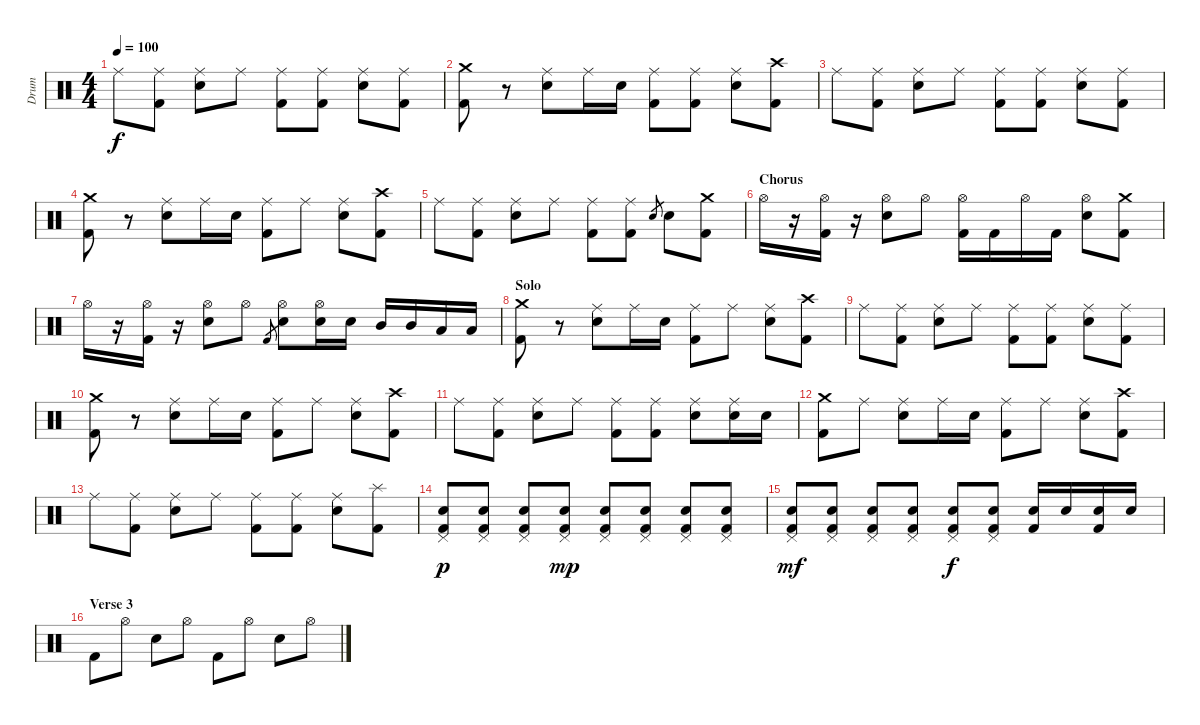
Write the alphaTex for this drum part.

\track ("Drum" "Drum") {instrument percussion}
\staff {score}
\articulation defaults
\ts (4 4)
\tempo 100
\clef neutral
\ks c "Ride (middle)".8{dy f}
("Ride (middle)" "Kick (hit) 2").8 ("Ride (middle)" "Snare (hit) 2").8 "Ride (middle)".8 ("Ride (middle)" "Kick (hit) 2").8 ("Ride (middle)" "Kick (hit) 2").8 ("Ride (middle)" "Snare (hit) 2").8 ("Ride (middle)" "Kick (hit) 2").8 |
("Crash medium (hit)" "Kick (hit) 2").8 r.8 ("Ride (middle)" "Snare (hit) 2").8 "Ride (middle)".16 "Snare (hit) 2".16 ("Ride (middle)" "Kick (hit) 2").8 ("Ride (middle)" "Kick (hit) 2").8 ("Ride (middle)" "Snare (hit) 2").8 ("Crash high (hit)" "Kick (hit) 2").8 |
"Ride (middle)".8 ("Ride (middle)" "Kick (hit) 2").8 ("Ride (middle)" "Snare (hit) 2").8 "Ride (middle)".8 ("Ride (middle)" "Kick (hit) 2").8 ("Ride (middle)" "Kick (hit) 2").8 ("Ride (middle)" "Snare (hit) 2").8 ("Ride (middle)" "Kick (hit) 2").8 |
("Crash medium (hit)" "Kick (hit) 2").8 r.8 ("Ride (middle)" "Snare (hit) 2").8 "Ride (middle)".16 "Snare (hit) 2".16 ("Ride (middle)" "Kick (hit) 2").8 "Ride (middle)".8 ("Ride (middle)" "Snare (hit) 2").8 ("Crash high (hit)" "Kick (hit) 2").8 |
"Ride (middle)".8 ("Ride (middle)" "Kick (hit) 2").8 ("Ride (middle)" "Snare (hit) 2").8 "Ride (middle)".8 ("Ride (middle)" "Kick (hit) 2").8 ("Ride (middle)" "Kick (hit) 2").8 "Snare (hit) 2".8{gr} "Snare (hit) 2".8 ("Crash medium (hit)" "Kick (hit) 2").8 |
\section ("" "Chorus")
"Hi-Hat (open)".16 r.16 ("Hi-Hat (open)" "Kick (hit) 2").16 r.16 ("Hi-Hat (open)" "Snare (hit) 2").8 "Hi-Hat (open)".8 ("Hi-Hat (open)" "Kick (hit) 2").16 "Kick (hit) 2".16 "Hi-Hat (open)".16 "Kick (hit) 2".16 ("Hi-Hat (open)" "Snare (hit) 2").8 ("Crash medium (hit)" "Kick (hit) 2").8 |
"Hi-Hat (open)".16 r.16 ("Hi-Hat (open)" "Kick (hit) 2").16 r.16 ("Hi-Hat (open)" "Snare (hit) 2").8 "Hi-Hat (open)".8 "Kick (hit) 2".8{gr} ("Hi-Hat (open)" "Snare (hit) 2").8 ("Hi-Hat (open)" "Snare (hit) 2").16 "Snare (hit) 2".16 "Mid Tom (hit)".16 "Mid Tom (hit)".16 "Low Tom (hit)".16 "Low Tom (hit)".16 |
\section ("" "Solo")
("Crash medium (hit)" "Kick (hit) 2").8 r.8 ("Ride (middle)" "Snare (hit) 2").8 "Ride (middle)".16 "Snare (hit) 2".16 ("Ride (middle)" "Kick (hit) 2").8 "Ride (middle)".8 ("Ride (middle)" "Snare (hit) 2").8 ("Crash high (hit)" "Kick (hit) 2").8 |
"Ride (middle)".8 ("Ride (middle)" "Kick (hit) 2").8 ("Ride (middle)" "Snare (hit) 2").8 "Ride (middle)".8 ("Ride (middle)" "Kick (hit) 2").8 ("Ride (middle)" "Kick (hit) 2").8 ("Ride (middle)" "Snare (hit) 2").8 ("Ride (middle)" "Kick (hit) 2").8 |
("Crash medium (hit)" "Kick (hit) 2").8 r.8 ("Ride (middle)" "Snare (hit) 2").8 "Ride (middle)".16 "Snare (hit) 2".16 ("Ride (middle)" "Kick (hit) 2").8 "Ride (middle)".8 ("Ride (middle)" "Snare (hit) 2").8 ("Crash high (hit)" "Kick (hit) 2").8 |
"Ride (middle)".8 ("Ride (middle)" "Kick (hit) 2").8 ("Ride (middle)" "Snare (hit) 2").8 "Ride (middle)".8 ("Ride (middle)" "Kick (hit) 2").8 ("Ride (middle)" "Kick (hit) 2").8 ("Ride (middle)" "Snare (hit) 2").8 ("Ride (middle)" "Snare (hit) 2").16 "Snare (hit) 2".16 |
("Crash medium (hit)" "Kick (hit) 2").8 "Ride (middle)".8 ("Ride (middle)" "Snare (hit) 2").8 "Ride (middle)".16 "Snare (hit) 2".16 ("Ride (middle)" "Kick (hit) 2").8 "Ride (middle)".8 ("Ride (middle)" "Snare (hit) 2").8 ("Crash high (hit)" "Kick (hit) 2").8 |
"Ride (middle)".8 ("Ride (middle)" "Kick (hit) 2").8 ("Ride (middle)" "Snare (hit) 2").8 "Ride (middle)".8 ("Ride (middle)" "Kick (hit) 2").8 ("Ride (middle)" "Kick (hit) 2").8 ("Ride (middle)" "Snare (hit) 2").8 ("Splash (hit)" "Kick (hit) 2").8 |
("Pedal Hi-Hat (hit)" "Snare (hit) 2" "Kick (hit) 2").8{dy p} ("Pedal Hi-Hat (hit)" "Snare (hit) 2" "Kick (hit) 2").8 ("Pedal Hi-Hat (hit)" "Snare (hit) 2" "Kick (hit) 2").8 ("Pedal Hi-Hat (hit)" "Snare (hit) 2" "Kick (hit) 2").8{dy mp} ("Pedal Hi-Hat (hit)" "Snare (hit) 2" "Kick (hit) 2").8 ("Pedal Hi-Hat (hit)" "Snare (hit) 2" "Kick (hit) 2").8 ("Pedal Hi-Hat (hit)" "Snare (hit) 2" "Kick (hit) 2").8 ("Pedal Hi-Hat (hit)" "Snare (hit) 2" "Kick (hit) 2").8 |
("Pedal Hi-Hat (hit)" "Snare (hit) 2" "Kick (hit) 2").8{dy mf} ("Pedal Hi-Hat (hit)" "Snare (hit) 2" "Kick (hit) 2").8 ("Pedal Hi-Hat (hit)" "Snare (hit) 2" "Kick (hit) 2").8 ("Pedal Hi-Hat (hit)" "Snare (hit) 2" "Kick (hit) 2").8 ("Pedal Hi-Hat (hit)" "Snare (hit) 2" "Kick (hit) 2").8{dy f} ("Pedal Hi-Hat (hit)" "Snare (hit) 2" "Kick (hit) 2").8 ("Snare (hit) 2" "Kick (hit) 2").16 "Snare (hit) 2".16 ("Snare (hit) 2" "Kick (hit) 2").16 "Snare (hit) 2".16 |
\section ("" "Verse 3")
"Kick (hit) 2".8 "Hi-Hat (open)".8 "Snare (hit) 2".8 "Hi-Hat (open)".8 "Kick (hit) 2".8 "Hi-Hat (open)".8 "Snare (hit) 2".8 "Hi-Hat (open)".8
